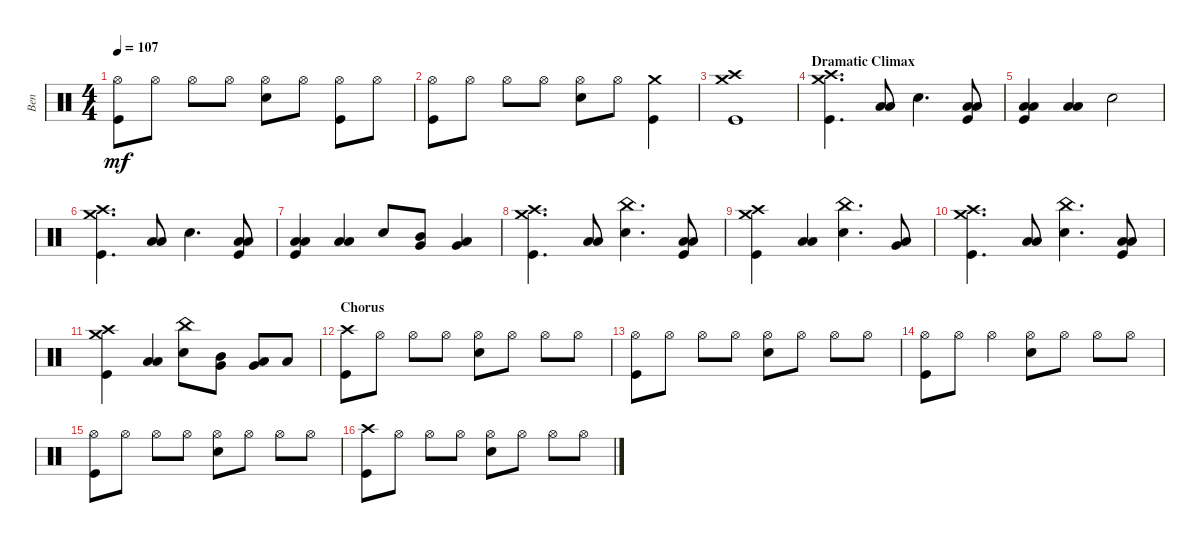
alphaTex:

\track ("Ben" "Ben") {instrument percussion}
\staff {score}
\articulation defaults
\ts (4 4)
\tempo 107
\clef neutral
\ks c
("Kick (hit)" "Hi-Hat (open)").8{dy mf} "Hi-Hat (open)".8 "Hi-Hat (open)".8 "Hi-Hat (open)".8 ("Hi-Hat (open)" "Snare (hit) 2").8 "Hi-Hat (open)".8 ("Hi-Hat (open)" "Kick (hit)").8 "Hi-Hat (open)".8 |
("Kick (hit)" "Hi-Hat (open)").8 "Hi-Hat (open)".8 "Hi-Hat (open)".8 "Hi-Hat (open)".8 ("Hi-Hat (open)" "Snare (hit) 2").8 "Hi-Hat (open)".8 ("Kick (hit)" "Crash medium (hit)").4 |
("Kick (hit)" "Crash medium (hit)" "Crash high (hit)").1 |
\section ("" "Dramatic Climax")
("Kick (hit)" "Crash medium (hit)" "Crash high (hit)").4{d} ("Low Floor Tom (hit)" "Low Tom (hit)").8 "Snare (hit) 2".4{d} ("Low Floor Tom (hit)" "Low Tom (hit)" "Kick (hit)").8 |
("Low Tom (hit)" "Low Floor Tom (hit)" "Kick (hit)").4 ("Low Tom (hit)" "Low Floor Tom (hit)").4 "Snare (hit) 2".2 |
("Kick (hit)" "Crash medium (hit)" "Crash high (hit)").4{d} ("Low Floor Tom (hit)" "Low Tom (hit)").8 "Snare (hit) 2".4{d} ("Low Floor Tom (hit)" "Low Tom (hit)" "Kick (hit)").8 |
("Low Tom (hit)" "Low Floor Tom (hit)" "Kick (hit)").4 ("Low Tom (hit)" "Low Floor Tom (hit)").4 "Snare (hit) 2".8 ("Mid Tom (hit)" "Very Low Tom (hit)").8 ("Very Low Tom (hit)" "Low Tom (hit)").4 |
("Kick (hit)" "Crash medium (hit)" "Crash high (hit)").4{d} ("Low Floor Tom (hit)" "Low Tom (hit)").8 ("Snare (hit) 2" "China (hit)").4{d} ("Kick (hit)" "Low Floor Tom (hit)" "Low Tom (hit)").8 |
("Kick (hit)" "Crash medium (hit)" "Crash high (hit)").4 ("Low Tom (hit)" "Low Floor Tom (hit)").4 ("Snare (hit) 2" "China (hit)").4{d} ("Very Low Tom (hit)" "Low Tom (hit)").8 |
("Kick (hit)" "Crash medium (hit)" "Crash high (hit)").4{d} ("Low Floor Tom (hit)" "Low Tom (hit)").8 ("Snare (hit) 2" "China (hit)").4{d} ("Low Floor Tom (hit)" "Low Tom (hit)" "Kick (hit)").8 |
("Kick (hit)" "Crash high (hit)" "Crash medium (hit)").4 ("Low Tom (hit)" "Low Floor Tom (hit)").4 ("Snare (hit) 2" "China (hit)").8 ("Mid Tom (hit)" "Very Low Tom (hit)").8 ("Very Low Tom (hit)" "Low Tom (hit)").8 "Low Floor Tom (hit)".8 |
\section ("" "Chorus")
("Crash high (hit)" "Kick (hit)").8 "Hi-Hat (open)".8 "Hi-Hat (open)".8 "Hi-Hat (open)".8 ("Hi-Hat (open)" "Snare (hit) 2").8 "Hi-Hat (open)".8 "Hi-Hat (open)".8 "Hi-Hat (open)".8 |
("Kick (hit)" "Hi-Hat (open)").8 "Hi-Hat (open)".8 "Hi-Hat (open)".8 "Hi-Hat (open)".8 ("Hi-Hat (open)" "Snare (hit) 2").8 "Hi-Hat (open)".8 "Hi-Hat (open)".8 "Hi-Hat (open)".8 |
("Kick (hit)" "Hi-Hat (open)").8 "Hi-Hat (open)".8 "Hi-Hat (open)".4 ("Hi-Hat (open)" "Snare (hit) 2").8 "Hi-Hat (open)".8 "Hi-Hat (open)".8 "Hi-Hat (open)".8 |
("Kick (hit)" "Hi-Hat (open)").8 "Hi-Hat (open)".8 "Hi-Hat (open)".8 "Hi-Hat (open)".8 ("Hi-Hat (open)" "Snare (hit) 2").8 "Hi-Hat (open)".8 "Hi-Hat (open)".8 "Hi-Hat (open)".8 |
("Crash high (hit)" "Kick (hit)").8 "Hi-Hat (open)".8 "Hi-Hat (open)".8 "Hi-Hat (open)".8 ("Hi-Hat (open)" "Snare (hit) 2").8 "Hi-Hat (open)".8 "Hi-Hat (open)".8 "Hi-Hat (open)".8
